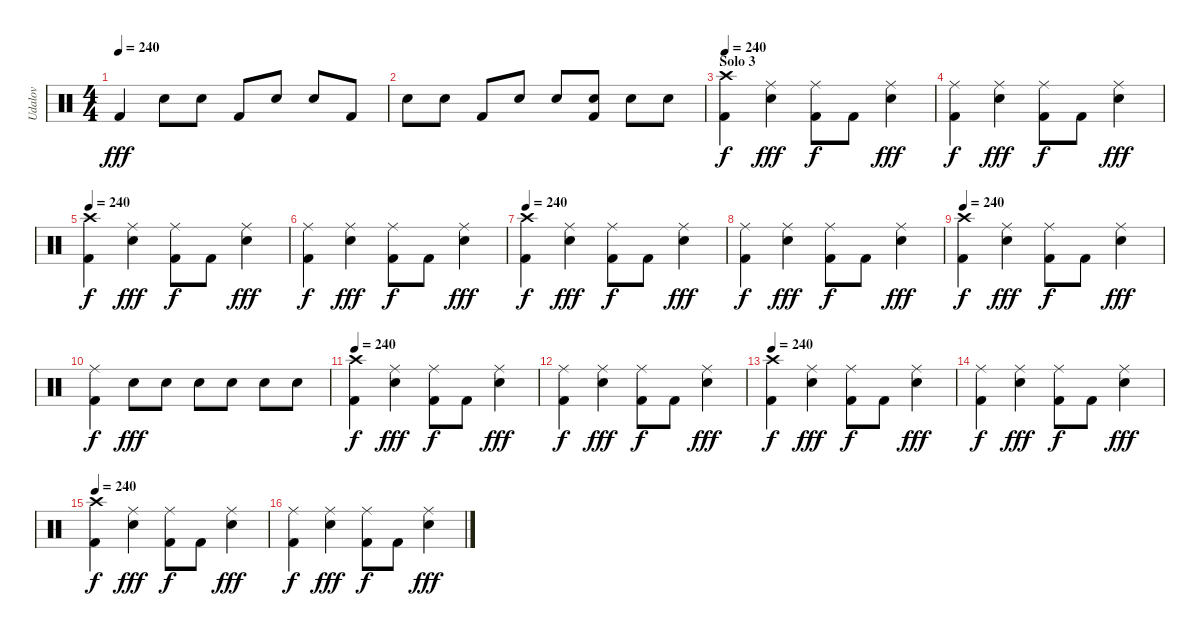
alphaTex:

\track ("Udalov" "Udalov") {instrument percussion}
\staff {score}
\articulation defaults
\ts (4 4)
\tempo 240
\clef neutral
\ks c "Kick (hit) 2".4{dy fff} "Electric Snare (hit)".8 "Electric Snare (hit)".8 "Kick (hit) 2".8 "Electric Snare (hit)".8 "Electric Snare (hit)".8 "Kick (hit) 2".8
|
"Electric Snare (hit)".8 "Electric Snare (hit)".8 "Kick (hit) 2".8 "Electric Snare (hit)".8 "Electric Snare (hit)".8 ("Electric Snare (hit)" "Kick (hit) 2").8 "Electric Snare (hit)".8 "Electric Snare (hit)".8 |
\section ("" "Solo 3")
\tempo 240
("Crash high (hit)" "Kick (hit) 2").4{dy f} ("Ride (middle)" "Electric Snare (hit)").4{dy fff} ("Ride (middle)" "Kick (hit) 2").8{dy f} "Kick (hit) 2".8 ("Ride (middle)" "Electric Snare (hit)").4{dy fff} |
("Ride (middle)" "Kick (hit) 2").4{dy f} ("Ride (middle)" "Electric Snare (hit)").4{dy fff} ("Ride (middle)" "Kick (hit) 2").8{dy f} "Kick (hit) 2".8 ("Ride (middle)" "Electric Snare (hit)").4{dy fff} |
\tempo 240
("Crash high (hit)" "Kick (hit) 2").4{dy f} ("Ride (middle)" "Electric Snare (hit)").4{dy fff} ("Ride (middle)" "Kick (hit) 2").8{dy f} "Kick (hit) 2".8 ("Ride (middle)" "Electric Snare (hit)").4{dy fff} |
("Ride (middle)" "Kick (hit) 2").4{dy f} ("Ride (middle)" "Electric Snare (hit)").4{dy fff} ("Ride (middle)" "Kick (hit) 2").8{dy f} "Kick (hit) 2".8 ("Ride (middle)" "Electric Snare (hit)").4{dy fff} |
\tempo 240
("Crash high (hit)" "Kick (hit) 2").4{dy f} ("Ride (middle)" "Electric Snare (hit)").4{dy fff} ("Ride (middle)" "Kick (hit) 2").8{dy f} "Kick (hit) 2".8 ("Ride (middle)" "Electric Snare (hit)").4{dy fff} |
("Ride (middle)" "Kick (hit) 2").4{dy f} ("Ride (middle)" "Electric Snare (hit)").4{dy fff} ("Ride (middle)" "Kick (hit) 2").8{dy f} "Kick (hit) 2".8 ("Ride (middle)" "Electric Snare (hit)").4{dy fff} |
\tempo 240
("Crash high (hit)" "Kick (hit) 2").4{dy f} ("Ride (middle)" "Electric Snare (hit)").4{dy fff} ("Ride (middle)" "Kick (hit) 2").8{dy f} "Kick (hit) 2".8 ("Ride (middle)" "Electric Snare (hit)").4{dy fff} |
("Ride (middle)" "Kick (hit) 2").4{dy f} "Electric Snare (hit)".8{dy fff} "Electric Snare (hit)".8 "Electric Snare (hit)".8 "Electric Snare (hit)".8 "Electric Snare (hit)".8 "Electric Snare (hit)".8 |
\tempo 240
("Crash high (hit)" "Kick (hit) 2").4{dy f} ("Ride (middle)" "Electric Snare (hit)").4{dy fff} ("Ride (middle)" "Kick (hit) 2").8{dy f} "Kick (hit) 2".8 ("Ride (middle)" "Electric Snare (hit)").4{dy fff} |
("Ride (middle)" "Kick (hit) 2").4{dy f} ("Ride (middle)" "Electric Snare (hit)").4{dy fff} ("Ride (middle)" "Kick (hit) 2").8{dy f} "Kick (hit) 2".8 ("Ride (middle)" "Electric Snare (hit)").4{dy fff} |
\tempo 240
("Crash high (hit)" "Kick (hit) 2").4{dy f} ("Ride (middle)" "Electric Snare (hit)").4{dy fff} ("Ride (middle)" "Kick (hit) 2").8{dy f} "Kick (hit) 2".8 ("Ride (middle)" "Electric Snare (hit)").4{dy fff} |
("Ride (middle)" "Kick (hit) 2").4{dy f} ("Ride (middle)" "Electric Snare (hit)").4{dy fff} ("Ride (middle)" "Kick (hit) 2").8{dy f} "Kick (hit) 2".8 ("Ride (middle)" "Electric Snare (hit)").4{dy fff} |
\tempo 240
("Crash high (hit)" "Kick (hit) 2").4{dy f} ("Ride (middle)" "Electric Snare (hit)").4{dy fff} ("Ride (middle)" "Kick (hit) 2").8{dy f} "Kick (hit) 2".8 ("Ride (middle)" "Electric Snare (hit)").4{dy fff} |
("Ride (middle)" "Kick (hit) 2").4{dy f} ("Ride (middle)" "Electric Snare (hit)").4{dy fff} ("Ride (middle)" "Kick (hit) 2").8{dy f} "Kick (hit) 2".8 ("Ride (middle)" "Electric Snare (hit)").4{dy fff}
